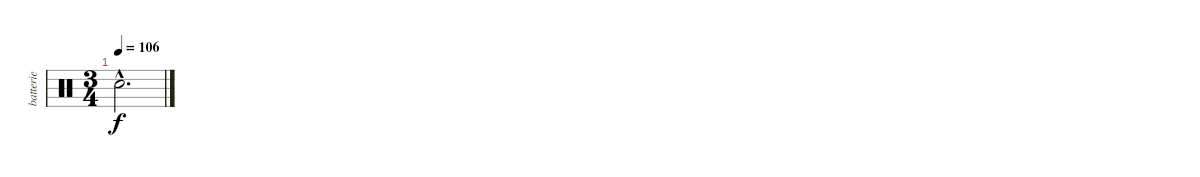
\track ("batterie" "batterie") {instrument percussion}
\staff {score}
\articulation defaults
\ts (3 4)
\tempo 106
\clef neutral
\ks c "Snare (hit)"{hac t}.2{d dy f}
